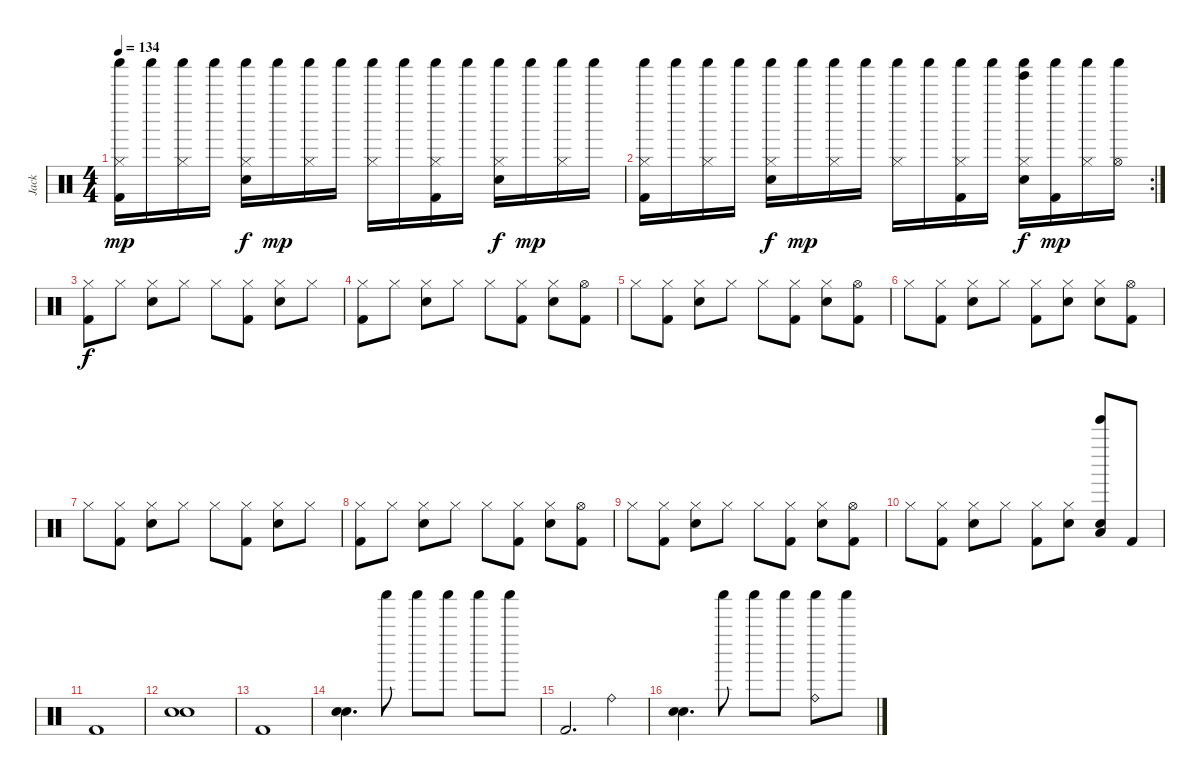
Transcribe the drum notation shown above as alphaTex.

\track ("Jack" "Jack") {instrument percussion}
\staff {score}
\articulation defaults
\ts (4 4)
\tempo 134
\clef neutral
\ks c
("Shaker (hit)" "Hi-Hat (closed)" "Kick (hit) 2").16{dy mp} "Shaker (hit)".16 ("Shaker (hit)" "Hi-Hat (closed)").16 "Shaker (hit)".16 ("Shaker (hit)" "Hi-Hat (closed)" "Electric Snare (hit)").16{dy f} "Shaker (hit)".16{dy mp} ("Shaker (hit)" "Hi-Hat (closed)").16 "Shaker (hit)".16 ("Shaker (hit)" "Hi-Hat (closed)").16 "Shaker (hit)".16 ("Shaker (hit)" "Hi-Hat (closed)" "Kick (hit) 2").16 "Shaker (hit)".16 ("Shaker (hit)" "Hi-Hat (closed)" "Electric Snare (hit)").16{dy f} "Shaker (hit)".16{dy mp} ("Shaker (hit)" "Hi-Hat (closed)").16 "Shaker (hit)".16 |
\rc 2
("Shaker (hit)" "Hi-Hat (closed)" "Kick (hit) 2").16 "Shaker (hit)".16 ("Shaker (hit)" "Hi-Hat (closed)").16 "Shaker (hit)".16 ("Shaker (hit)" "Hi-Hat (closed)" "Electric Snare (hit)").16{dy f} "Shaker (hit)".16{dy mp} ("Shaker (hit)" "Hi-Hat (closed)").16 "Shaker (hit)".16 ("Shaker (hit)" "Hi-Hat (closed)").16 "Shaker (hit)".16 ("Shaker (hit)" "Hi-Hat (closed)" "Kick (hit) 2").16 "Shaker (hit)".16 ("Shaker (hit)" "Hi-Hat (closed)" "Electric Snare (hit)" "Tinkle Bell (hit)").16{dy f} ("Shaker (hit)" "Kick (hit) 2").16{dy mp} ("Shaker (hit)" "Hi-Hat (closed)").16 ("Shaker (hit)" "Hi-Hat (open)").16 |
("Hi-Hat (closed)" "Kick (hit) 2").8{dy f} "Hi-Hat (closed)".8 ("Hi-Hat (closed)" "Electric Snare (hit)").8 "Hi-Hat (closed)".8 "Hi-Hat (closed)".8 ("Hi-Hat (closed)" "Kick (hit) 2").8 ("Hi-Hat (closed)" "Electric Snare (hit)").8 "Hi-Hat (closed)".8 |
("Hi-Hat (closed)" "Kick (hit) 2").8 "Hi-Hat (closed)".8 ("Hi-Hat (closed)" "Electric Snare (hit)").8 "Hi-Hat (closed)".8 "Hi-Hat (closed)".8 ("Hi-Hat (closed)" "Kick (hit) 2").8 ("Hi-Hat (closed)" "Electric Snare (hit)").8 ("Hi-Hat (open)" "Kick (hit) 2").8 |
"Hi-Hat (closed)".8 ("Hi-Hat (closed)" "Kick (hit) 2").8 ("Hi-Hat (closed)" "Electric Snare (hit)").8 "Hi-Hat (closed)".8 "Hi-Hat (closed)".8 ("Hi-Hat (closed)" "Kick (hit) 2").8 ("Hi-Hat (closed)" "Electric Snare (hit)").8 ("Hi-Hat (open)" "Kick (hit) 2").8 |
"Hi-Hat (closed)".8 ("Hi-Hat (closed)" "Kick (hit) 2").8 ("Hi-Hat (closed)" "Electric Snare (hit)").8 "Hi-Hat (closed)".8 ("Hi-Hat (closed)" "Kick (hit) 2").8 ("Hi-Hat (closed)" "Electric Snare (hit)").8 ("Hi-Hat (closed)" "Electric Snare (hit)").8 ("Hi-Hat (open)" "Kick (hit) 2").8 |
"Hi-Hat (closed)".8 ("Hi-Hat (closed)" "Kick (hit) 2").8 ("Hi-Hat (closed)" "Electric Snare (hit)").8 "Hi-Hat (closed)".8 "Hi-Hat (closed)".8 ("Hi-Hat (closed)" "Kick (hit) 2").8 ("Hi-Hat (closed)" "Electric Snare (hit)").8 "Hi-Hat (closed)".8 |
("Hi-Hat (closed)" "Kick (hit) 2").8 "Hi-Hat (closed)".8 ("Hi-Hat (closed)" "Electric Snare (hit)").8 "Hi-Hat (closed)".8 "Hi-Hat (closed)".8 ("Hi-Hat (closed)" "Kick (hit) 2").8 ("Hi-Hat (closed)" "Electric Snare (hit)").8 ("Hi-Hat (open)" "Kick (hit) 2").8 |
"Hi-Hat (closed)".8 ("Hi-Hat (closed)" "Kick (hit) 2").8 ("Hi-Hat (closed)" "Electric Snare (hit)").8 "Hi-Hat (closed)".8 "Hi-Hat (closed)".8 ("Hi-Hat (closed)" "Kick (hit) 2").8 ("Hi-Hat (closed)" "Electric Snare (hit)").8 ("Hi-Hat (open)" "Kick (hit) 2").8 |
"Hi-Hat (closed)".8 ("Hi-Hat (closed)" "Kick (hit) 2").8 ("Hi-Hat (closed)" "Electric Snare (hit)").8 "Hi-Hat (closed)".8 ("Hi-Hat (closed)" "Kick (hit) 2").8 ("Hi-Hat (closed)" "Electric Snare (hit)").8 ("Tinkle Bell (hit)" "Electric Snare (hit)" "Low Floor Tom (hit)").8 "Kick (hit) 2".8 |
"Kick (hit) 2".1 |
("Electric Snare (hit)" "Hand Clap (hit)").1 |
"Kick (hit) 2".1 |
("Electric Snare (hit)" "Hand Clap (hit)").4{d} "Shaker (hit)".8 "Shaker (hit)".8 "Shaker (hit)".8 "Shaker (hit)".8 "Shaker (hit)".8 |
"Kick (hit) 2".2{d} "Ride (bell)".4 |
("Electric Snare (hit)" "Hand Clap (hit)").4{d} "Shaker (hit)".8 "Shaker (hit)".8 "Shaker (hit)".8 ("Shaker (hit)" "Ride (bell)").8 "Shaker (hit)".8
